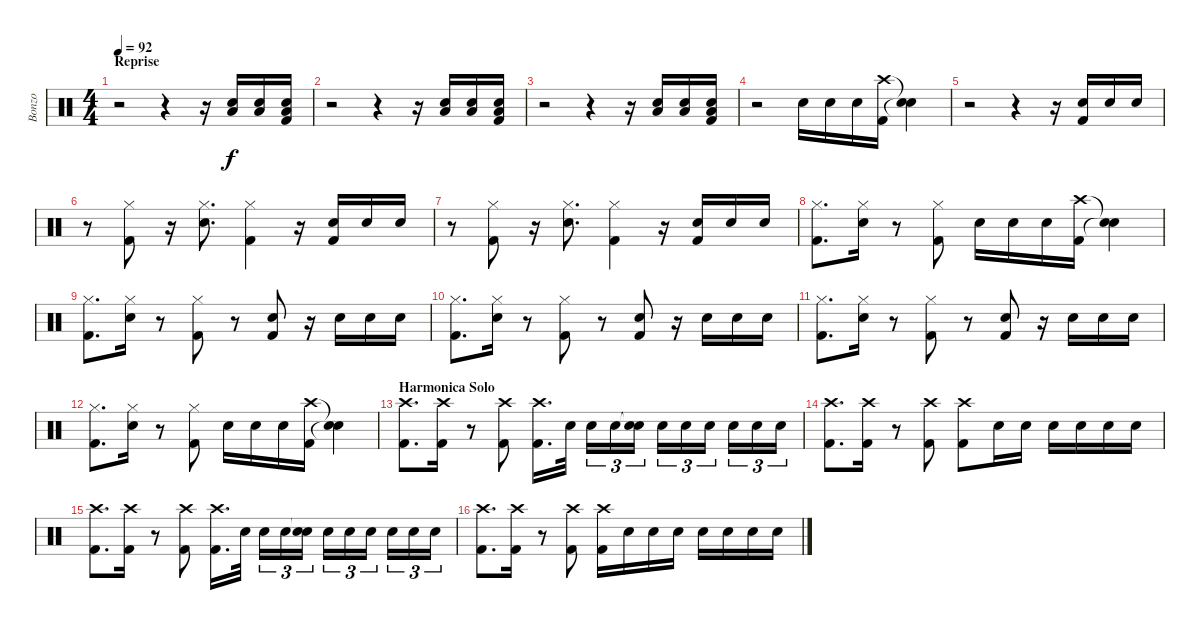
\track ("Bonzo" "Bonzo") {instrument percussion}
\staff {score}
\articulation defaults
\ts (4 4)
\section ("" "Reprise")
\tempo 92
\clef neutral
\ks c
r.2{dy f} r.4 r.16 ("Snare (hit) 2" "Low Tom (hit)").16 ("Snare (hit) 2" "Low Tom (hit)").16 ("Snare (hit) 2" "Low Tom (hit)" "Kick (hit) 2").16 |
r.2 r.4 r.16 ("Snare (hit) 2" "Low Tom (hit)").16 ("Snare (hit) 2" "Low Tom (hit)").16 ("Snare (hit) 2" "Low Tom (hit)" "Kick (hit) 2").16 |
r.2 r.4 r.16 ("Snare (hit) 2" "Low Tom (hit)").16 ("Snare (hit) 2" "Low Tom (hit)").16 ("Snare (hit) 2" "Low Tom (hit)" "Kick (hit) 2").16 |
r.2 "Snare (hit) 2".16 "Snare (hit) 2".16 "Snare (hit) 2".16 ("Crash high (hit)" "Kick (hit) 2").16 ("Snare (hit)"{t} "Snare (hit)"{t}).4 |
r.2 r.4 r.16 ("Snare (hit) 2" "Kick (hit) 2").16 "Snare (hit) 2".16 "Snare (hit) 2".16 |
r.8 ("Hi-Hat (closed)" "Kick (hit) 2").8 r.16 ("Hi-Hat (closed)" "Snare (hit) 2").8{d} ("Hi-Hat (closed)" "Kick (hit) 2").4 r.16 ("Snare (hit) 2" "Kick (hit) 2").16 "Snare (hit) 2".16 "Snare (hit) 2".16 |
r.8 ("Hi-Hat (closed)" "Kick (hit) 2").8 r.16 ("Hi-Hat (closed)" "Snare (hit) 2").8{d} ("Hi-Hat (closed)" "Kick (hit) 2").4 r.16 ("Snare (hit) 2" "Kick (hit) 2").16 "Snare (hit) 2".16 "Snare (hit) 2".16 |
("Hi-Hat (closed)" "Kick (hit) 2").8{d} ("Hi-Hat (closed)" "Snare (hit) 2").16 r.8 ("Hi-Hat (closed)" "Kick (hit) 2").8 "Snare (hit) 2".16 "Snare (hit) 2".16 "Snare (hit) 2".16 ("Crash high (hit)" "Kick (hit) 2").16 ("Snare (hit)"{t} "Snare (hit)"{t}).4 |
("Hi-Hat (closed)" "Kick (hit) 2").8{d} ("Hi-Hat (closed)" "Snare (hit) 2").16 r.8 ("Hi-Hat (closed)" "Kick (hit) 2").8 r.8 ("Snare (hit) 2" "Kick (hit) 2").8 r.16 "Snare (hit) 2".16 "Snare (hit) 2".16 "Snare (hit) 2".16 |
("Hi-Hat (closed)" "Kick (hit) 2").8{d} ("Hi-Hat (closed)" "Snare (hit) 2").16 r.8 ("Hi-Hat (closed)" "Kick (hit) 2").8 r.8 ("Snare (hit) 2" "Kick (hit) 2").8 r.16 "Snare (hit) 2".16 "Snare (hit) 2".16 "Snare (hit) 2".16 |
("Hi-Hat (closed)" "Kick (hit) 2").8{d} ("Hi-Hat (closed)" "Snare (hit) 2").16 r.8 ("Hi-Hat (closed)" "Kick (hit) 2").8 r.8 ("Snare (hit) 2" "Kick (hit) 2").8 r.16 "Snare (hit) 2".16 "Snare (hit) 2".16 "Snare (hit) 2".16 |
("Hi-Hat (closed)" "Kick (hit) 2").8{d} ("Hi-Hat (closed)" "Snare (hit) 2").16 r.8 ("Hi-Hat (closed)" "Kick (hit) 2").8 "Snare (hit) 2".16 "Snare (hit) 2".16 "Snare (hit) 2".16 ("Crash high (hit)" "Kick (hit) 2").16 ("Snare (hit)"{t} "Snare (hit)"{t}).4 |
\section ("" "Harmonica Solo")
("Crash high (hit)" "Kick (hit) 2").8{d} ("Crash high (hit)" "Kick (hit) 2").16 r.8 ("Crash high (hit)" "Kick (hit) 2").8 ("Crash high (hit)" "Kick (hit) 2").16{d} "Snare (hit) 2".32 "Snare (hit) 2".16{tu (3 2)} "Snare (hit) 2".16{tu (3 2)} ("Snare (hit)"{t} "Snare (hit) 2").16{tu (3 2)} "Snare (hit) 2".16{tu (3 2)} "Snare (hit) 2".16{tu (3 2)} "Snare (hit) 2".16{tu (3 2)} "Snare (hit) 2".16{tu (3 2)} "Snare (hit) 2".16{tu (3 2)} "Snare (hit) 2".16{tu (3 2)} |
("Crash high (hit)" "Kick (hit) 2").8{d} ("Crash high (hit)" "Kick (hit) 2").16 r.8 ("Crash high (hit)" "Kick (hit) 2").8 ("Crash high (hit)" "Kick (hit) 2").8 "Snare (hit) 2".16 "Snare (hit) 2".16 "Snare (hit) 2".16 "Snare (hit) 2".16 "Snare (hit) 2".16 "Snare (hit) 2".16 |
("Crash high (hit)" "Kick (hit) 2").8{d} ("Crash high (hit)" "Kick (hit) 2").16 r.8 ("Crash high (hit)" "Kick (hit) 2").8 ("Crash high (hit)" "Kick (hit) 2").16{d} "Snare (hit) 2".32 "Snare (hit) 2".16{tu (3 2)} "Snare (hit) 2".16{tu (3 2)} ("Snare (hit)"{t} "Snare (hit) 2").16{tu (3 2)} "Snare (hit) 2".16{tu (3 2)} "Snare (hit) 2".16{tu (3 2)} "Snare (hit) 2".16{tu (3 2)} "Snare (hit) 2".16{tu (3 2)} "Snare (hit) 2".16{tu (3 2)} "Snare (hit) 2".16{tu (3 2)} |
("Crash high (hit)" "Kick (hit) 2").8{d} ("Crash high (hit)" "Kick (hit) 2").16 r.8 ("Crash high (hit)" "Kick (hit) 2").8 ("Crash high (hit)" "Kick (hit) 2").16 "Snare (hit) 2".16 "Snare (hit) 2".16 "Snare (hit) 2".16 "Snare (hit) 2".16 "Snare (hit) 2".16 "Snare (hit) 2".16 "Snare (hit) 2".16
